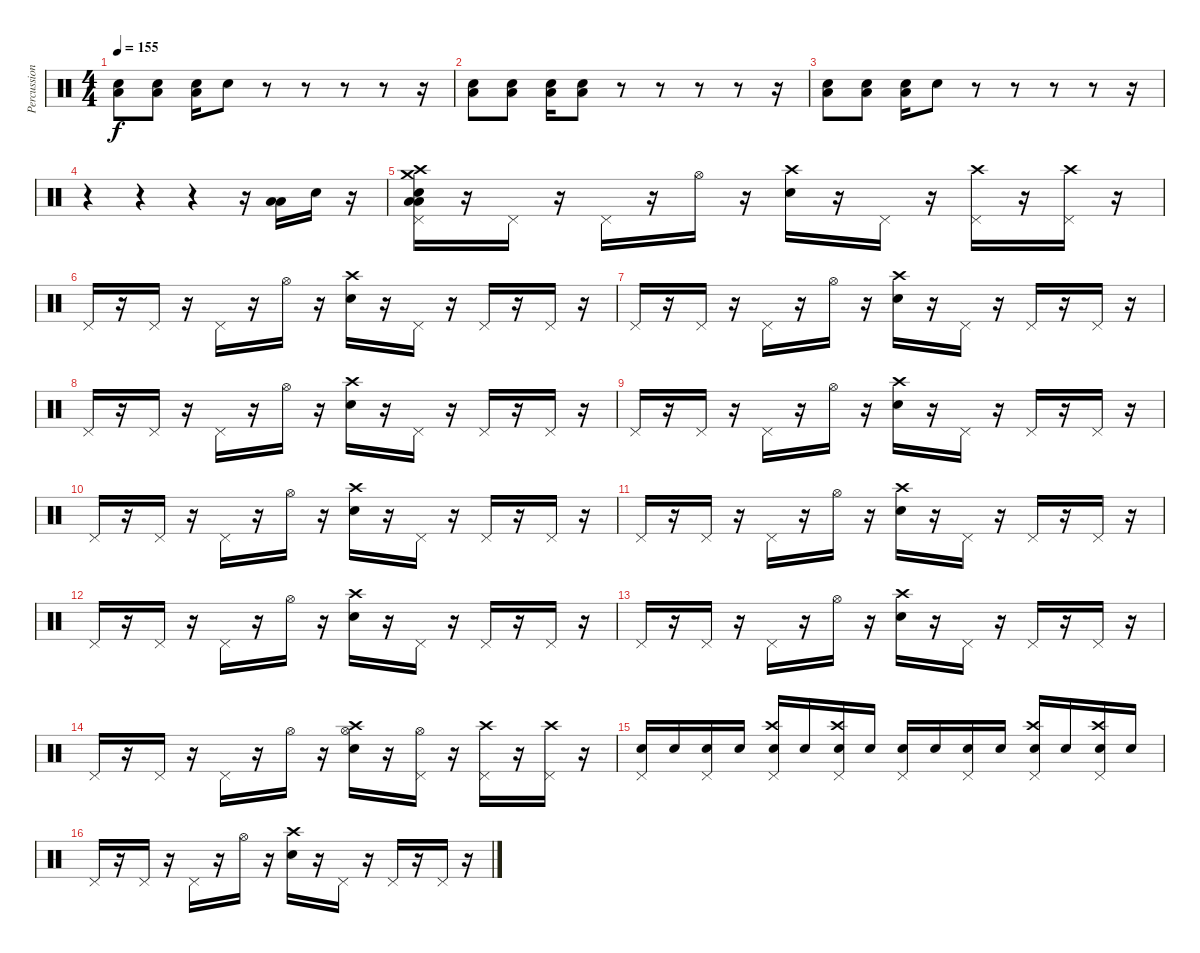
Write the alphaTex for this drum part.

\track ("Percussion" "Percussion") {instrument percussion}
\staff {score}
\articulation defaults
\ts (4 4)
\tempo 155
\clef neutral
\ks c
("Electric Snare (hit)" "Low Tom (hit)").8{dy f} ("Electric Snare (hit)" "Low Tom (hit)").8 ("Electric Snare (hit)" "Low Tom (hit)").16 "Electric Snare (hit)".8 r.8 r.8 r.8 r.8 r.16 |
("Electric Snare (hit)" "Low Tom (hit)").8 ("Electric Snare (hit)" "Low Tom (hit)").8 ("Electric Snare (hit)" "Low Tom (hit)").16 ("Electric Snare (hit)" "Low Tom (hit)").8 r.8 r.8 r.8 r.8 r.16 |
("Electric Snare (hit)" "Low Tom (hit)").8 ("Electric Snare (hit)" "Low Tom (hit)").8 ("Electric Snare (hit)" "Low Tom (hit)").16 "Electric Snare (hit)".8 r.8 r.8 r.8 r.8 r.16 |
r.4 r.4 r.4 r.16 ("Low Floor Tom (hit)" "Low Tom (hit)").16 "Electric Snare (hit)".16 r.16 |
("Crash high (hit)" "Pedal Hi-Hat (hit)" "Crash medium (hit)" "Electric Snare (hit)" "Low Floor Tom (hit)" "Low Tom (hit)").16 r.16 "Pedal Hi-Hat (hit)".16 r.16 "Pedal Hi-Hat (hit)".16 r.16 "Hi-Hat (open)".16 r.16 ("Crash high (hit)" "Electric Snare (hit)").16 r.16 "Pedal Hi-Hat (hit)".16 r.16 ("Crash high (hit)" "Pedal Hi-Hat (hit)").16 r.16 ("Crash high (hit)" "Pedal Hi-Hat (hit)").16 r.16 |
"Pedal Hi-Hat (hit)".16 r.16 "Pedal Hi-Hat (hit)".16 r.16 "Pedal Hi-Hat (hit)".16 r.16 "Hi-Hat (open)".16 r.16 ("Crash high (hit)" "Electric Snare (hit)").16 r.16 "Pedal Hi-Hat (hit)".16 r.16 "Pedal Hi-Hat (hit)".16 r.16 "Pedal Hi-Hat (hit)".16 r.16 |
"Pedal Hi-Hat (hit)".16 r.16 "Pedal Hi-Hat (hit)".16 r.16 "Pedal Hi-Hat (hit)".16 r.16 "Hi-Hat (open)".16 r.16 ("Crash high (hit)" "Electric Snare (hit)").16 r.16 "Pedal Hi-Hat (hit)".16 r.16 "Pedal Hi-Hat (hit)".16 r.16 "Pedal Hi-Hat (hit)".16 r.16 |
"Pedal Hi-Hat (hit)".16 r.16 "Pedal Hi-Hat (hit)".16 r.16 "Pedal Hi-Hat (hit)".16 r.16 "Hi-Hat (open)".16 r.16 ("Crash high (hit)" "Electric Snare (hit)").16 r.16 "Pedal Hi-Hat (hit)".16 r.16 "Pedal Hi-Hat (hit)".16 r.16 "Pedal Hi-Hat (hit)".16 r.16 |
"Pedal Hi-Hat (hit)".16 r.16 "Pedal Hi-Hat (hit)".16 r.16 "Pedal Hi-Hat (hit)".16 r.16 "Hi-Hat (open)".16 r.16 ("Crash high (hit)" "Electric Snare (hit)").16 r.16 "Pedal Hi-Hat (hit)".16 r.16 "Pedal Hi-Hat (hit)".16 r.16 "Pedal Hi-Hat (hit)".16 r.16 |
"Pedal Hi-Hat (hit)".16 r.16 "Pedal Hi-Hat (hit)".16 r.16 "Pedal Hi-Hat (hit)".16 r.16 "Hi-Hat (open)".16 r.16 ("Crash high (hit)" "Electric Snare (hit)").16 r.16 "Pedal Hi-Hat (hit)".16 r.16 "Pedal Hi-Hat (hit)".16 r.16 "Pedal Hi-Hat (hit)".16 r.16 |
"Pedal Hi-Hat (hit)".16 r.16 "Pedal Hi-Hat (hit)".16 r.16 "Pedal Hi-Hat (hit)".16 r.16 "Hi-Hat (open)".16 r.16 ("Crash high (hit)" "Electric Snare (hit)").16 r.16 "Pedal Hi-Hat (hit)".16 r.16 "Pedal Hi-Hat (hit)".16 r.16 "Pedal Hi-Hat (hit)".16 r.16 |
"Pedal Hi-Hat (hit)".16 r.16 "Pedal Hi-Hat (hit)".16 r.16 "Pedal Hi-Hat (hit)".16 r.16 "Hi-Hat (open)".16 r.16 ("Crash high (hit)" "Electric Snare (hit)").16 r.16 "Pedal Hi-Hat (hit)".16 r.16 "Pedal Hi-Hat (hit)".16 r.16 "Pedal Hi-Hat (hit)".16 r.16 |
"Pedal Hi-Hat (hit)".16 r.16 "Pedal Hi-Hat (hit)".16 r.16 "Pedal Hi-Hat (hit)".16 r.16 "Hi-Hat (open)".16 r.16 ("Crash high (hit)" "Electric Snare (hit)").16 r.16 "Pedal Hi-Hat (hit)".16 r.16 "Pedal Hi-Hat (hit)".16 r.16 "Pedal Hi-Hat (hit)".16 r.16 |
"Pedal Hi-Hat (hit)".16 r.16 "Pedal Hi-Hat (hit)".16 r.16 "Pedal Hi-Hat (hit)".16 r.16 "Hi-Hat (open)".16 r.16 ("Hi-Hat (open)" "Crash high (hit)" "Electric Snare (hit)").16 r.16 ("Hi-Hat (open)" "Pedal Hi-Hat (hit)").16 r.16 ("Crash high (hit)" "Pedal Hi-Hat (hit)").16 r.16 ("Crash high (hit)" "Pedal Hi-Hat (hit)").16 r.16 |
("Pedal Hi-Hat (hit)" "Electric Snare (hit)").16 "Electric Snare (hit)".16 ("Pedal Hi-Hat (hit)" "Electric Snare (hit)").16 "Electric Snare (hit)".16 ("Crash high (hit)" "Pedal Hi-Hat (hit)" "Electric Snare (hit)").16 "Electric Snare (hit)".16 ("Crash high (hit)" "Pedal Hi-Hat (hit)" "Electric Snare (hit)").16 "Electric Snare (hit)".16 ("Pedal Hi-Hat (hit)" "Electric Snare (hit)").16 "Electric Snare (hit)".16 ("Pedal Hi-Hat (hit)" "Electric Snare (hit)").16 "Electric Snare (hit)".16 ("Crash high (hit)" "Pedal Hi-Hat (hit)" "Electric Snare (hit)").16 "Electric Snare (hit)".16 ("Crash high (hit)" "Pedal Hi-Hat (hit)" "Electric Snare (hit)").16 "Electric Snare (hit)".16 |
"Pedal Hi-Hat (hit)".16 r.16 "Pedal Hi-Hat (hit)".16 r.16 "Pedal Hi-Hat (hit)".16 r.16 "Hi-Hat (open)".16 r.16 ("Crash high (hit)" "Electric Snare (hit)").16 r.16 "Pedal Hi-Hat (hit)".16 r.16 "Pedal Hi-Hat (hit)".16 r.16 "Pedal Hi-Hat (hit)".16 r.16
